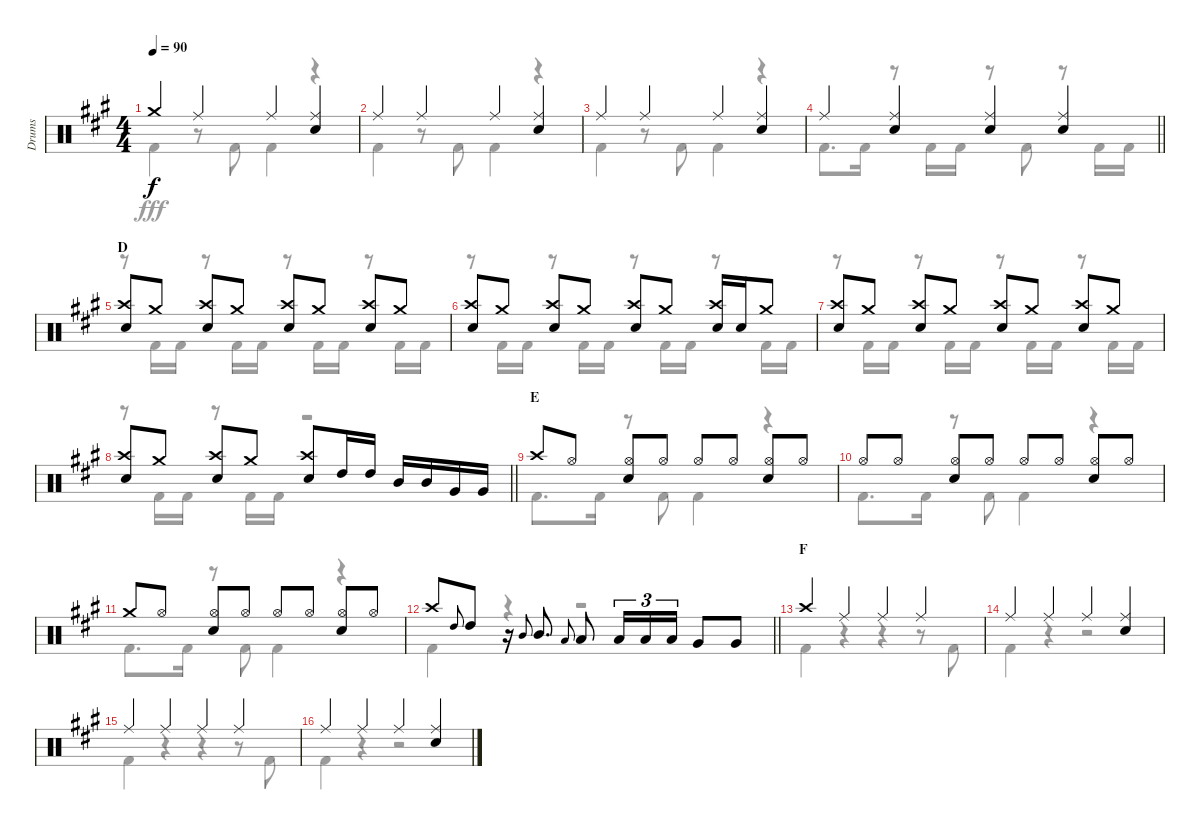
\track ("Drums" "Drums") {instrument percussion}
\staff {score}
\articulation defaults
\voice
\ts (4 4)
\tempo 90
\clef neutral
\ks a "Crash medium (hit)".4{dy f} "Ride (middle)".4 "Ride (middle)".4
("Ride (middle)" "Snare (hit) 2").4 |
"Ride (middle)".4 "Ride (middle)".4 "Ride (middle)".4 ("Ride (middle)" "Snare (hit) 2").4 |
"Ride (middle)".4 "Ride (middle)".4 "Ride (middle)".4 ("Ride (middle)" "Snare (hit) 2").4 |
\barLineRight lightlight "Ride (middle)".4
("Ride (middle)" "Snare (hit) 2").4 ("Ride (middle)" "Snare (hit) 2").4 ("Ride (middle)" "Snare (hit) 2").4 |
\section ("" "D")
("Crash high (hit)" "Snare (hit) 2").8 "Crash medium (hit)".8 ("Crash high (hit)" "Snare (hit) 2").8 "Crash medium (hit)".8 ("Crash high (hit)" "Snare (hit) 2").8 "Crash medium (hit)".8 ("Crash high (hit)" "Snare (hit) 2").8 "Crash medium (hit)".8 |
("Crash high (hit)" "Snare (hit) 2").8 "Crash medium (hit)".8 ("Crash high (hit)" "Snare (hit) 2").8 "Crash medium (hit)".8 ("Crash high (hit)" "Snare (hit) 2").8 "Crash medium (hit)".8 ("Crash high (hit)" "Snare (hit) 2").16 "Snare (hit) 2".16 "Crash medium (hit)".8 |
("Crash high (hit)" "Snare (hit) 2").8 "Crash medium (hit)".8 ("Crash high (hit)" "Snare (hit) 2").8 "Crash medium (hit)".8 ("Crash high (hit)" "Snare (hit) 2").8 "Crash medium (hit)".8 ("Crash high (hit)" "Snare (hit) 2").8 "Crash medium (hit)".8 |
\barLineRight lightlight
("Crash high (hit)" "Snare (hit) 2").8 "Crash medium (hit)".8 ("Crash high (hit)" "Snare (hit) 2").8 "Crash medium (hit)".8 ("Crash high (hit)" "Snare (hit) 2").8 "High Tom (hit)".16 "High Tom (hit)".16 "Mid Tom (hit)".16 "Mid Tom (hit)".16 "Very Low Tom (hit)".16 "Very Low Tom (hit)".16 |
\section ("" "E")
"Crash high (hit)".8 "Hi-Hat (open)".8 ("Hi-Hat (open)" "Snare (hit) 2").8 "Hi-Hat (open)".8 "Hi-Hat (open)".8 "Hi-Hat (open)".8 ("Hi-Hat (open)" "Snare (hit) 2").8 "Hi-Hat (open)".8 |
"Hi-Hat (open)".8 "Hi-Hat (open)".8 ("Hi-Hat (open)" "Snare (hit) 2").8 "Hi-Hat (open)".8 "Hi-Hat (open)".8 "Hi-Hat (open)".8 ("Hi-Hat (open)" "Snare (hit) 2").8 "Hi-Hat (open)".8 |
"Crash medium (hit)".8 "Hi-Hat (open)".8 ("Hi-Hat (open)" "Snare (hit) 2").8 "Hi-Hat (open)".8 "Hi-Hat (open)".8 "Hi-Hat (open)".8 ("Hi-Hat (open)" "Snare (hit) 2").8 "Hi-Hat (open)".8 |
\barLineRight lightlight "Crash high (hit)".8 "High Tom (hit)".8{gr onbeat} "High Tom (hit)".8
r.16 "Mid Tom (hit)".8{gr onbeat} "Mid Tom (hit)".8{d} "Low Tom (hit)".8{gr onbeat} "Low Tom (hit)".8 "Low Tom (hit)".16{tu (3 2)} "Low Tom (hit)".16{tu (3 2)} "Low Tom (hit)".16{tu (3 2)} "Very Low Tom (hit)".8 "Very Low Tom (hit)".8 |
\section ("" "F")
"Crash high (hit)".4 "Ride (middle)".4 "Ride (middle)".4 "Ride (middle)".4 |
"Ride (middle)".4 "Ride (middle)".4 "Ride (middle)".4 ("Ride (middle)" "Snare (hit) 2").4 |
"Ride (middle)".4 "Ride (middle)".4 "Ride (middle)".4 "Ride (middle)".4 |
"Ride (middle)".4 "Ride (middle)".4 "Ride (middle)".4 ("Ride (middle)" "Snare (hit) 2").4
\voice
\clef neutral
\ottava regular
\simile none
\ks a "Kick (hit) 2".4{dy fff}
r.8 "Kick (hit) 2".8 "Kick (hit) 2".4 r.4 |
"Kick (hit) 2".4 r.8 "Kick (hit) 2".8 "Kick (hit) 2".4 r.4 |
"Kick (hit) 2".4 r.8 "Kick (hit) 2".8 "Kick (hit) 2".4 r.4 |
\barLineRight lightlight "Kick (hit) 2".8{d} "Kick (hit) 2".16
r.8 "Kick (hit) 2".16 "Kick (hit) 2".16 r.8 "Kick (hit) 2".8 r.8 "Kick (hit) 2".16 "Kick (hit) 2".16 |
r.8 "Kick (hit) 2".16 "Kick (hit) 2".16 r.8 "Kick (hit) 2".16 "Kick (hit) 2".16 r.8 "Kick (hit) 2".16 "Kick (hit) 2".16 r.8 "Kick (hit) 2".16 "Kick (hit) 2".16 |
r.8 "Kick (hit) 2".16 "Kick (hit) 2".16 r.8 "Kick (hit) 2".16 "Kick (hit) 2".16 r.8 "Kick (hit) 2".16 "Kick (hit) 2".16 r.8 "Kick (hit) 2".16 "Kick (hit) 2".16 |
r.8 "Kick (hit) 2".16 "Kick (hit) 2".16 r.8 "Kick (hit) 2".16 "Kick (hit) 2".16 r.8 "Kick (hit) 2".16 "Kick (hit) 2".16 r.8 "Kick (hit) 2".16 "Kick (hit) 2".16 |
\barLineRight lightlight
r.8 "Kick (hit) 2".16 "Kick (hit) 2".16 r.8 "Kick (hit) 2".16 "Kick (hit) 2".16 r.2 |
"Kick (hit) 2".8{d} "Kick (hit) 2".16 r.8 "Kick (hit) 2".8 "Kick (hit) 2".4 r.4 |
"Kick (hit) 2".8{d} "Kick (hit) 2".16 r.8 "Kick (hit) 2".8 "Kick (hit) 2".4 r.4 |
"Kick (hit) 2".8{d} "Kick (hit) 2".16 r.8 "Kick (hit) 2".8 "Kick (hit) 2".4 r.4 |
\barLineRight lightlight "Kick (hit) 2".4
r.4 r.2 |
"Kick (hit) 2".4 r.4 r.4 r.8 "Kick (hit) 2".8 |
"Kick (hit) 2".4 r.4 r.2 |
"Kick (hit) 2".4 r.4 r.4 r.8 "Kick (hit) 2".8 |
"Kick (hit) 2".4 r.4 r.2
